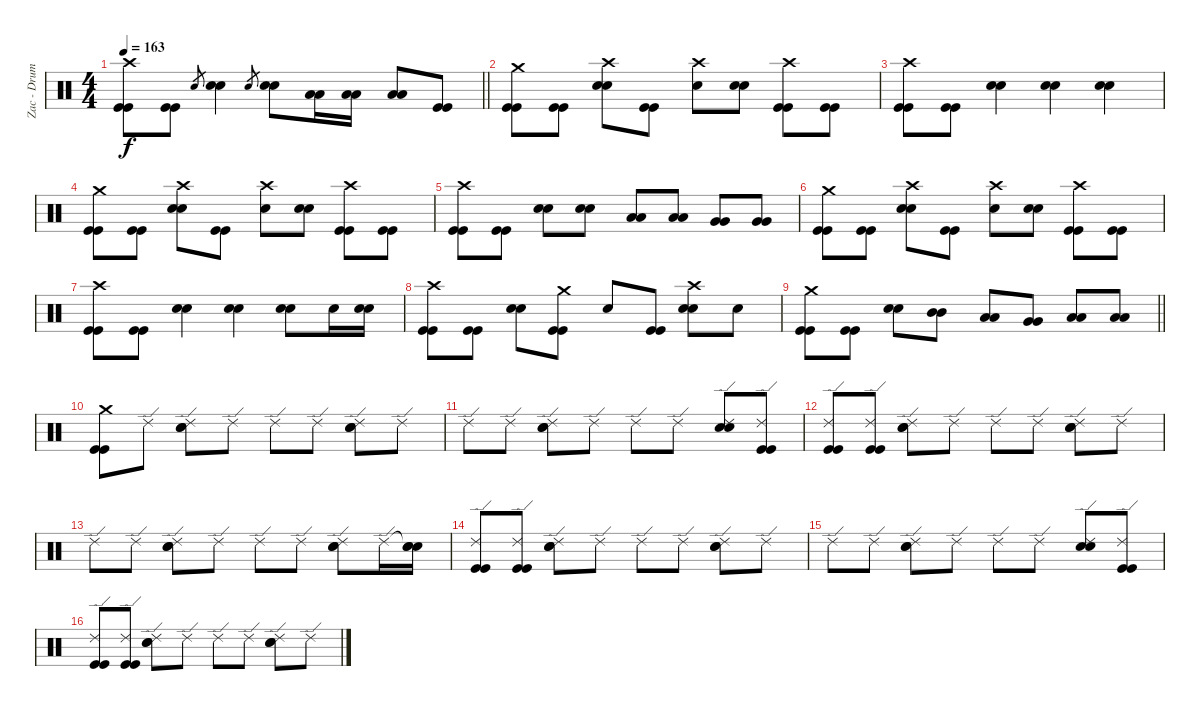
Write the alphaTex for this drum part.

\track ("Zac - Drums" "Zac - Drum") {instrument percussion}
\staff {score}
\articulation defaults
\ts (4 4)
\tempo 163
\clef neutral
\barLineRight lightlight
\ks c
("Crash high (hit)" "Kick (hit)" "Kick (hit)").8{dy f} ("Kick (hit)" "Kick (hit)").8 "Electric Snare (hit)".8{gr} ("Electric Snare (hit)" "Electric Snare (hit)").4 "Electric Snare (hit)".8{gr} ("Electric Snare (hit)" "Electric Snare (hit)").8 ("Low Tom (hit)" "Low Tom (hit)").16 ("Low Tom (hit)" "Low Tom (hit)").16 ("Low Tom (hit)" "Low Tom (hit)").8 ("Kick (hit)" "Kick (hit)").8 |
("Crash medium (hit)" "Kick (hit)" "Kick (hit)").8 ("Kick (hit)" "Kick (hit)").8 ("Crash high (hit)" "Electric Snare (hit)" "Electric Snare (hit)").8 ("Kick (hit)" "Kick (hit)").8 ("Crash high (hit)" "Snare (hit)").8 ("Electric Snare (hit)" "Electric Snare (hit)").8 ("Crash high (hit)" "Kick (hit)" "Kick (hit)").8 ("Kick (hit)" "Kick (hit)").8 |
("Crash high (hit)" "Kick (hit)" "Kick (hit)").8 ("Kick (hit)" "Kick (hit)").8 ("Electric Snare (hit)" "Electric Snare (hit)").4 ("Electric Snare (hit)" "Electric Snare (hit)").4 ("Electric Snare (hit)" "Electric Snare (hit)").4 |
("Crash medium (hit)" "Kick (hit)" "Kick (hit)").8 ("Kick (hit)" "Kick (hit)").8 ("Crash high (hit)" "Electric Snare (hit)" "Electric Snare (hit)").8 ("Kick (hit)" "Kick (hit)").8 ("Crash high (hit)" "Snare (hit)").8 ("Electric Snare (hit)" "Electric Snare (hit)").8 ("Crash high (hit)" "Kick (hit)" "Kick (hit)").8 ("Kick (hit)" "Kick (hit)").8 |
("Crash high (hit)" "Kick (hit)" "Kick (hit)").8 ("Kick (hit)" "Kick (hit)").8 ("Electric Snare (hit)" "Electric Snare (hit)").8 ("Electric Snare (hit)" "Electric Snare (hit)").8 ("Low Tom (hit)" "Low Tom (hit)").8 ("Low Tom (hit)" "Low Tom (hit)").8 ("Very Low Tom (hit)" "Very Low Tom (hit)").8 ("Very Low Tom (hit)" "Very Low Tom (hit)").8 |
("Crash medium (hit)" "Kick (hit)" "Kick (hit)").8 ("Kick (hit)" "Kick (hit)").8 ("Crash high (hit)" "Electric Snare (hit)" "Electric Snare (hit)").8 ("Kick (hit)" "Kick (hit)").8 ("Crash high (hit)" "Snare (hit)").8 ("Electric Snare (hit)" "Electric Snare (hit)").8 ("Crash high (hit)" "Kick (hit)" "Kick (hit)").8 ("Kick (hit)" "Kick (hit)").8 |
("Crash high (hit)" "Kick (hit)" "Kick (hit)").8 ("Kick (hit)" "Kick (hit)").8 ("Electric Snare (hit)" "Electric Snare (hit)").4 ("Electric Snare (hit)" "Electric Snare (hit)").4 ("Electric Snare (hit)" "Electric Snare (hit)").8 "Snare (hit)".16 ("Electric Snare (hit)" "Electric Snare (hit)").16 |
("Crash high (hit)" "Kick (hit)" "Kick (hit)").8 ("Kick (hit)" "Kick (hit)").8 ("Electric Snare (hit)" "Electric Snare (hit)").8 ("Crash medium (hit)" "Kick (hit)" "Kick (hit)").8 "Snare (hit)".8 ("Kick (hit)" "Kick (hit)").8 ("Crash high (hit)" "Electric Snare (hit)" "Electric Snare (hit)").8 "Snare (hit)".8 |
\barLineRight lightlight
("Crash medium (hit)" "Kick (hit)" "Kick (hit)").8 ("Kick (hit)" "Kick (hit)").8 ("Electric Snare (hit)" "Electric Snare (hit)").8 ("Mid Tom (hit)" "Mid Tom (hit)").8 ("Low Tom (hit)" "Low Tom (hit)").8 ("Very Low Tom (hit)" "Very Low Tom (hit)").8 ("Low Floor Tom (hit)" "Low Floor Tom (hit)").8 ("Low Floor Tom (hit)" "Low Floor Tom (hit)").8 |
("Crash medium (hit)" "Kick (hit)" "Kick (hit)").8 "Ride (edge) 2".8 ("Ride (edge) 2" "Electric Snare (hit)" "Electric Snare (hit)").8 "Ride (edge) 2".8 "Ride (edge) 2".8 "Ride (edge) 2".8 ("Ride (edge) 2" "Electric Snare (hit)" "Electric Snare (hit)").8 "Ride (edge) 2".8 |
"Ride (edge) 2".8 "Ride (edge) 2".8 ("Ride (edge) 2" "Electric Snare (hit)" "Electric Snare (hit)").8 "Ride (edge) 2".8 "Ride (edge) 2".8 "Ride (edge) 2".8 ("Ride (edge) 2" "Electric Snare (hit)" "Electric Snare (hit)").8 ("Ride (edge) 2" "Kick (hit)" "Kick (hit)").8 |
("Ride (edge) 2" "Kick (hit)" "Kick (hit)").8 ("Ride (edge) 2" "Kick (hit)" "Kick (hit)").8 ("Ride (edge) 2" "Electric Snare (hit)" "Electric Snare (hit)").8 "Ride (edge) 2".8 "Ride (edge) 2".8 "Ride (edge) 2".8 ("Ride (edge) 2" "Electric Snare (hit)" "Electric Snare (hit)").8 "Ride (edge) 2".8 |
"Ride (edge) 2".8 "Ride (edge) 2".8 ("Ride (edge) 2" "Electric Snare (hit)" "Electric Snare (hit)").8 "Ride (edge) 2".8 "Ride (edge) 2".8 "Ride (edge) 2".8 ("Ride (edge) 2" "Electric Snare (hit)" "Electric Snare (hit)").8 "Ride (edge) 2".16 ("Snare (hit)"{t} "Electric Snare (hit)" "Electric Snare (hit)").16 |
("Ride (edge) 2" "Kick (hit)" "Kick (hit)").8 ("Ride (edge) 2" "Kick (hit)" "Kick (hit)").8 ("Ride (edge) 2" "Electric Snare (hit)" "Electric Snare (hit)").8 "Ride (edge) 2".8 "Ride (edge) 2".8 "Ride (edge) 2".8 ("Ride (edge) 2" "Electric Snare (hit)" "Electric Snare (hit)").8 "Ride (edge) 2".8 |
"Ride (edge) 2".8 "Ride (edge) 2".8 ("Ride (edge) 2" "Electric Snare (hit)" "Electric Snare (hit)").8 "Ride (edge) 2".8 "Ride (edge) 2".8 "Ride (edge) 2".8 ("Ride (edge) 2" "Electric Snare (hit)" "Electric Snare (hit)").8 ("Ride (edge) 2" "Kick (hit)" "Kick (hit)").8 |
("Ride (edge) 2" "Kick (hit)" "Kick (hit)").8 ("Ride (edge) 2" "Kick (hit)" "Kick (hit)").8 ("Ride (edge) 2" "Electric Snare (hit)" "Electric Snare (hit)").8 "Ride (edge) 2".8 "Ride (edge) 2".8 "Ride (edge) 2".8 ("Ride (edge) 2" "Electric Snare (hit)" "Electric Snare (hit)").8 "Ride (edge) 2".8
